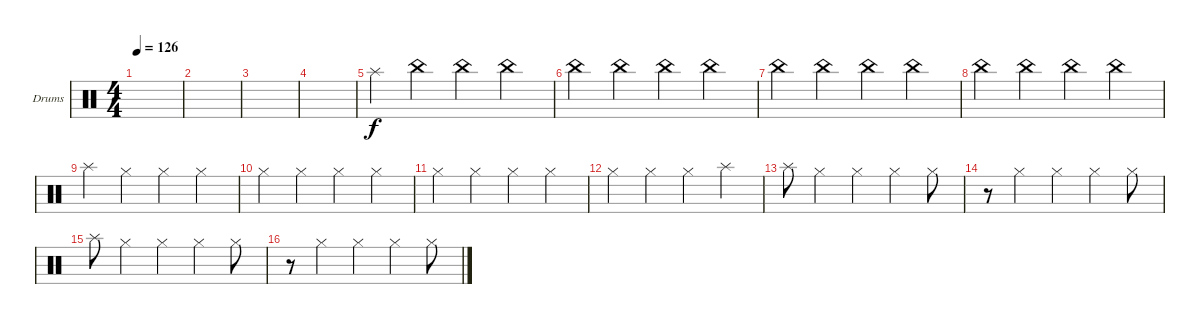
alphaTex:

\defaultSystemsLayout 4
\bracketExtendMode groupsimilarinstruments
\firstSystemTrackNameOrientation horizontal
\otherSystemsTrackNameOrientation horizontal
\track ("Drumkit" "Drums") {instrument percussion}
\staff {score}
\articulation defaults
\ts (4 4)
\tempo 126
\clef neutral
\ks c
|
|
|
|
"Splash (hit)".4 "China (hit)".4 "China (hit)".4 "China (hit)".4 |
"China (hit)".4 "China (hit)".4 "China (hit)".4 "China (hit)".4 |
"China (hit)".4 "China (hit)".4 "China (hit)".4 "China (hit)".4 |
"China (hit)".4 "China (hit)".4 "China (hit)".4 "China (hit)".4 |
"Splash (hit)".4 "Hi-Hat (closed)".4 "Hi-Hat (closed)".4 "Hi-Hat (closed)".4 |
"Hi-Hat (closed)".4 "Hi-Hat (closed)".4 "Hi-Hat (closed)".4 "Hi-Hat (closed)".4 |
"Hi-Hat (closed)".4 "Hi-Hat (closed)".4 "Hi-Hat (closed)".4 "Hi-Hat (closed)".4 |
"Hi-Hat (closed)".4 "Hi-Hat (closed)".4 "Hi-Hat (closed)".4 "Splash (hit)".4 |
"Splash (hit)".8 "Hi-Hat (closed)".4 "Hi-Hat (closed)".4 "Hi-Hat (closed)".4 "Hi-Hat (closed)".8 |
r.8 "Hi-Hat (closed)".4 "Hi-Hat (closed)".4 "Hi-Hat (closed)".4 "Hi-Hat (closed)".8 |
"Splash (hit)".8 "Hi-Hat (closed)".4 "Hi-Hat (closed)".4 "Hi-Hat (closed)".4 "Hi-Hat (closed)".8 |
r.8 "Hi-Hat (closed)".4 "Hi-Hat (closed)".4 "Hi-Hat (closed)".4 "Hi-Hat (closed)".8
